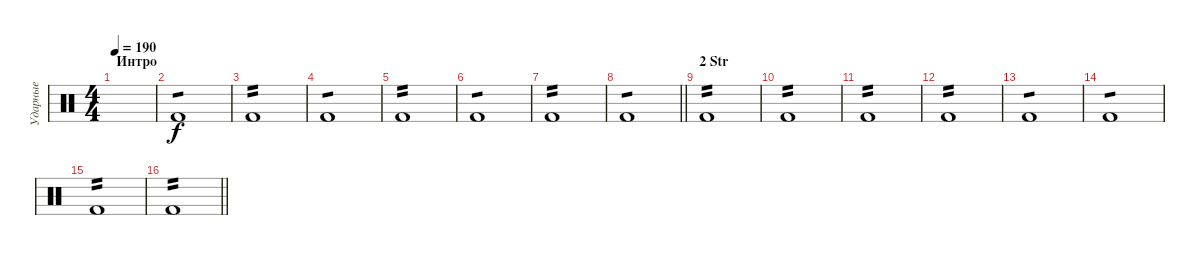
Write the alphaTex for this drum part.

\track ("Ударные" "Ударные") {instrument percussion}
\staff {score}
\articulation defaults
\ts (4 4)
\section ("" "Интро")
\tempo 190
\clef neutral
\ks c
|
"Kick (hit) 2".1{tp 1} |
"Kick (hit) 2".1{tp 2} |
"Kick (hit) 2".1{tp 1} |
"Kick (hit) 2".1{tp 2} |
"Kick (hit) 2".1{tp 1} |
"Kick (hit) 2".1{tp 2} |
\barLineRight lightlight "Kick (hit) 2".1{tp 1}
|
\section ("" "2 Str")
"Kick (hit) 2".1{tp 2} |
"Kick (hit) 2".1{tp 2} |
"Kick (hit) 2".1{tp 2} |
"Kick (hit) 2".1{tp 2} |
"Kick (hit) 2".1{tp 1} |
"Kick (hit) 2".1{tp 1} |
"Kick (hit) 2".1{tp 2} |
\barLineRight lightlight "Kick (hit) 2".1{tp 2}
